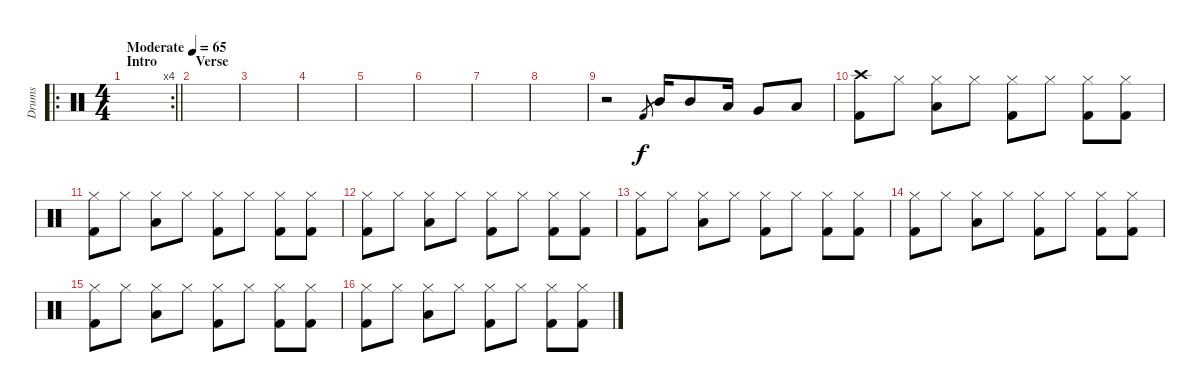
\track ("Drums" "Drums") {instrument percussion}
\staff {score}
\articulation defaults
\ro
\rc 4
\ts (4 4)
\section ("" "Intro")
\tempo (65 "Moderate")
\clef neutral
\barLineRight lightlight
\ks c
|
\section ("" "Verse")
|
|
|
|
|
|
|
r.2 "Kick (hit) 2".8{gr} "Mid Tom (hit)".16 "Mid Tom (hit)".8 "Low Tom (hit)".16 "Very Low Tom (hit)".8 "Low Floor Tom (hit)".8 |
("Crash high (hit)" "Kick (hit) 2").8 "Hi-Hat (closed)".8 ("Hi-Hat (closed)" "Low Floor Tom (hit)").8 "Hi-Hat (closed)".8 ("Hi-Hat (closed)" "Kick (hit) 2").8 "Hi-Hat (closed)".8 ("Hi-Hat (closed)" "Kick (hit) 2").8 ("Hi-Hat (closed)" "Kick (hit) 2").8 |
("Hi-Hat (closed)" "Kick (hit) 2").8 "Hi-Hat (closed)".8 ("Hi-Hat (closed)" "Low Floor Tom (hit)").8 "Hi-Hat (closed)".8 ("Hi-Hat (closed)" "Kick (hit) 2").8 "Hi-Hat (closed)".8 ("Hi-Hat (closed)" "Kick (hit) 2").8 ("Hi-Hat (closed)" "Kick (hit) 2").8 |
("Hi-Hat (closed)" "Kick (hit) 2").8 "Hi-Hat (closed)".8 ("Hi-Hat (closed)" "Low Floor Tom (hit)").8 "Hi-Hat (closed)".8 ("Hi-Hat (closed)" "Kick (hit) 2").8 "Hi-Hat (closed)".8 ("Hi-Hat (closed)" "Kick (hit) 2").8 ("Hi-Hat (closed)" "Kick (hit) 2").8 |
("Hi-Hat (closed)" "Kick (hit) 2").8 "Hi-Hat (closed)".8 ("Hi-Hat (closed)" "Low Floor Tom (hit)").8 "Hi-Hat (closed)".8 ("Hi-Hat (closed)" "Kick (hit) 2").8 "Hi-Hat (closed)".8 ("Hi-Hat (closed)" "Kick (hit) 2").8 ("Hi-Hat (closed)" "Kick (hit) 2").8 |
("Hi-Hat (closed)" "Kick (hit) 2").8 "Hi-Hat (closed)".8 ("Hi-Hat (closed)" "Low Floor Tom (hit)").8 "Hi-Hat (closed)".8 ("Hi-Hat (closed)" "Kick (hit) 2").8 "Hi-Hat (closed)".8 ("Hi-Hat (closed)" "Kick (hit) 2").8 ("Hi-Hat (closed)" "Kick (hit) 2").8 |
("Hi-Hat (closed)" "Kick (hit) 2").8 "Hi-Hat (closed)".8 ("Hi-Hat (closed)" "Low Floor Tom (hit)").8 "Hi-Hat (closed)".8 ("Hi-Hat (closed)" "Kick (hit) 2").8 "Hi-Hat (closed)".8 ("Hi-Hat (closed)" "Kick (hit) 2").8 ("Hi-Hat (closed)" "Kick (hit) 2").8 |
("Hi-Hat (closed)" "Kick (hit) 2").8 "Hi-Hat (closed)".8 ("Hi-Hat (closed)" "Low Floor Tom (hit)").8 "Hi-Hat (closed)".8 ("Hi-Hat (closed)" "Kick (hit) 2").8 "Hi-Hat (closed)".8 ("Hi-Hat (closed)" "Kick (hit) 2").8 ("Hi-Hat (closed)" "Kick (hit) 2").8
